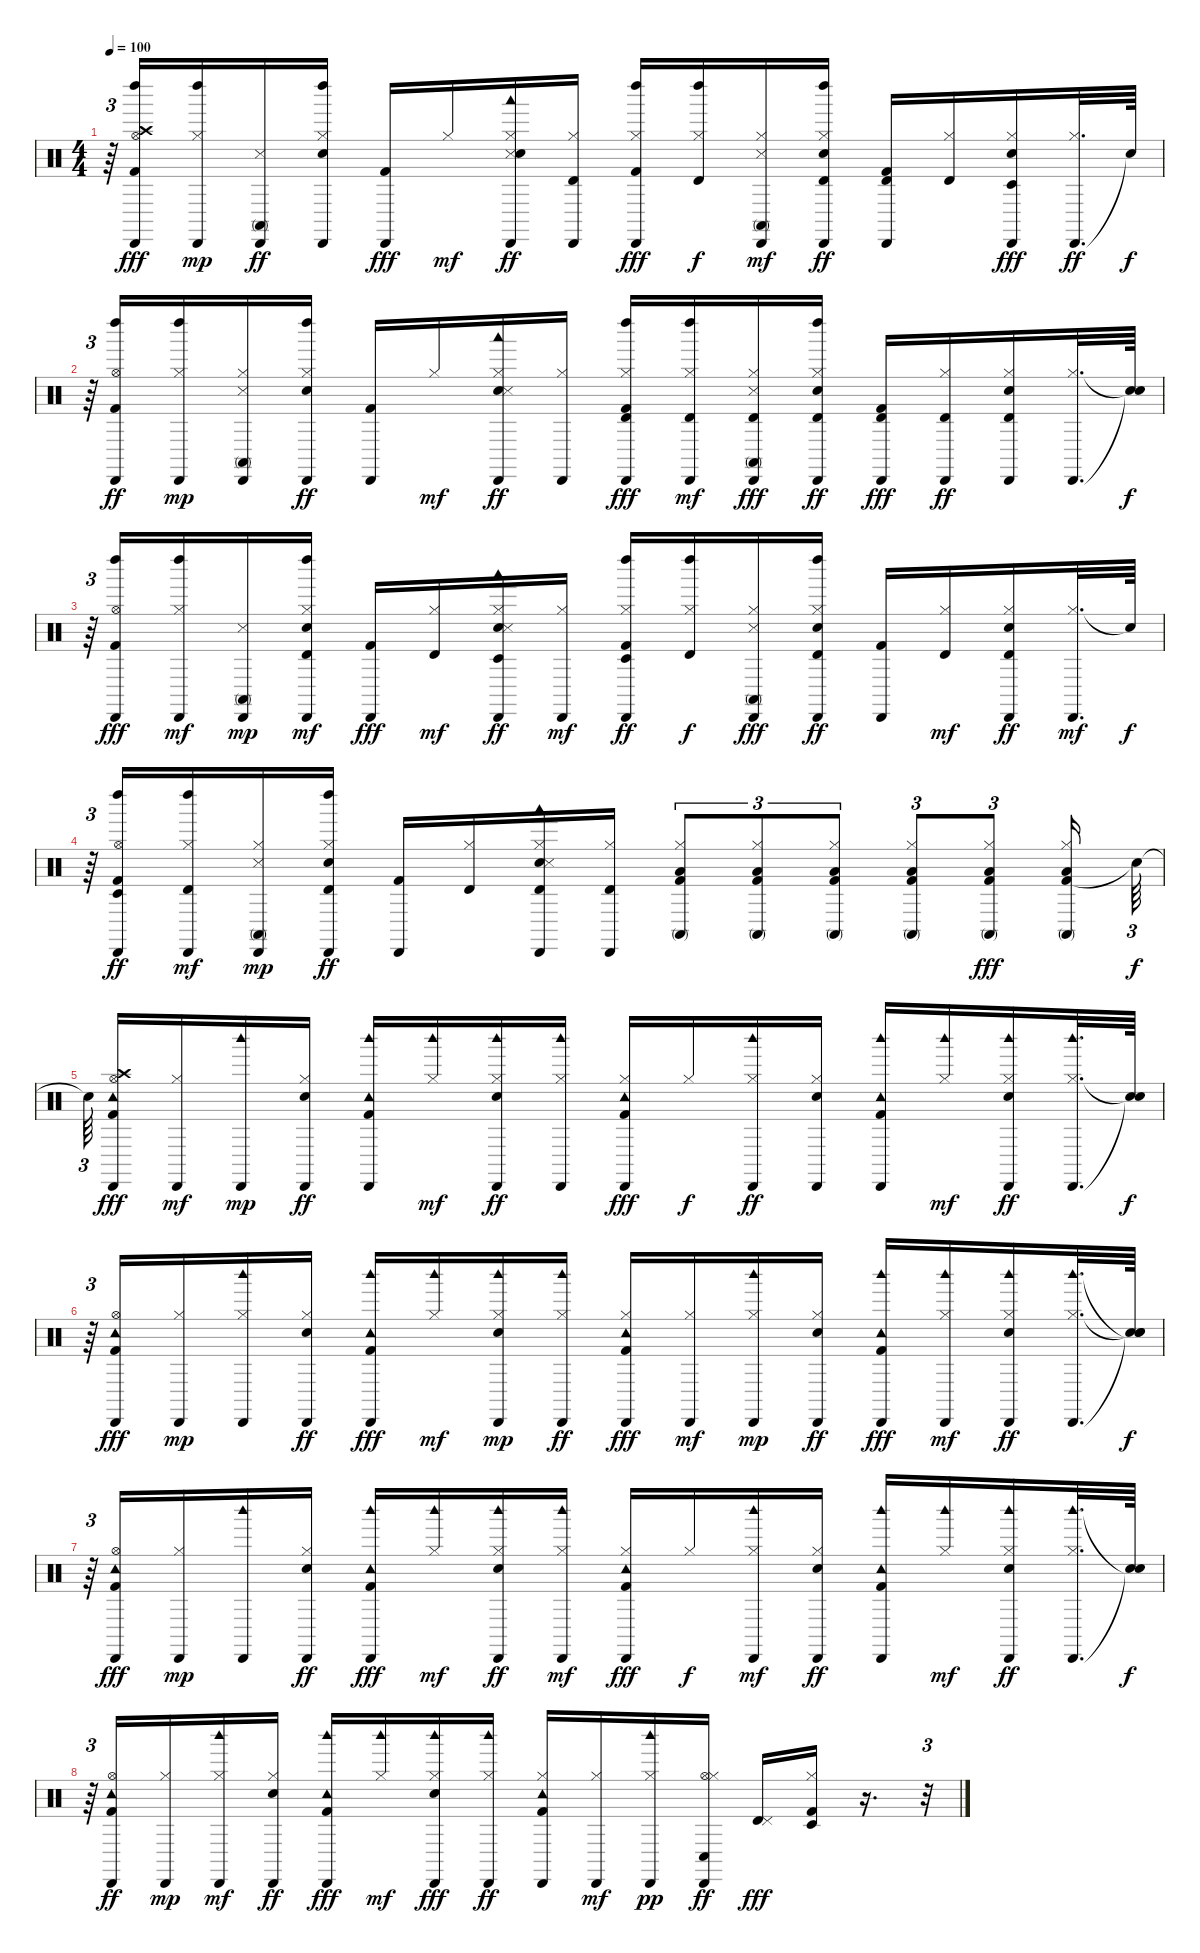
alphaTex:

\track "" {instrument percussion}
\staff {score}
\articulation defaults
\ts (4 4)
\tempo 100
\clef neutral
\ks c
r.64{tu (3 2) dy f} ("Kick (hit) 2" "Left Maraca (hit)" "Hi-Hat (open)" "Crash high (hit)" "Cabasa (hit)").16{dy fff} ("Cabasa (hit)" "Left Maraca (hit)" "Hi-Hat (closed)").16{dy mp} ("Conga high (mute)" "Cabasa (hit)" "Snare (side stick) 3").16{dy ff} ("Left Maraca (hit)" "Cabasa (hit)" "Electric Snare (hit)" "Hi-Hat (closed)").16 ("Cabasa (hit)" "Kick (hit) 2").16{dy fff} "Hi-Hat (closed)".16{dy mf} ("Hi-Hat (closed)" "Snare (side stick) 3" "Electric Snare (hit)" "Woodblock low (hit)" "Cabasa (hit)").16{dy ff} ("Cabasa (hit)" "Hi-Hat (closed)" "Timbale high (hit)").16 ("Left Maraca (hit)" "Hi-Hat (closed)" "Kick (hit) 2" "Cabasa (hit)").16{dy fff} ("Left Maraca (hit)" "Hi-Hat (closed)" "Timbale high (hit)").16{dy f} ("Conga high (mute)" "Hi-Hat (closed)" "Snare (side stick) 3" "Cabasa (hit)").16{dy mf} ("Timbale high (hit)" "Left Maraca (hit)" "Electric Snare (hit)" "Cabasa (hit)" "Hi-Hat (closed)").16{dy ff} ("Kick (hit) 2" "Cabasa (hit)" "Timbale high (hit)").16 ("Hi-Hat (closed)" "Timbale high (hit)").16 ("Timbale low (hit)" "Hi-Hat (closed)" "Cabasa (hit)" "Electric Snare (hit)").16{dy fff} ("Cabasa (hit)" "Hi-Hat (closed)").32{d dy ff} "Snare (hit)"{t}.64{dy f} |
r.64{tu (3 2)} ("Kick (hit) 2" "Left Maraca (hit)" "Cabasa (hit)" "Hi-Hat (open)").16{dy ff} ("Cabasa (hit)" "Hi-Hat (closed)" "Left Maraca (hit)").16{dy mp} ("Snare (side stick) 3" "Conga high (mute)" "Hi-Hat (closed)" "Cabasa (hit)").16 ("Hi-Hat (closed)" "Cabasa (hit)" "Left Maraca (hit)" "Electric Snare (hit)").16{dy ff} ("Cabasa (hit)" "Kick (hit) 2").16 "Hi-Hat (closed)".16{dy mf} ("Woodblock low (hit)" "Cabasa (hit)" "Electric Snare (hit)" "Hi-Hat (closed)" "Snare (side stick) 3").16{dy ff} ("Hi-Hat (closed)" "Cabasa (hit)").16 ("Left Maraca (hit)" "Cabasa (hit)" "Hi-Hat (closed)" "Timbale high (hit)" "Kick (hit) 2").16{dy fff} ("Cabasa (hit)" "Timbale high (hit)" "Left Maraca (hit)" "Hi-Hat (closed)").16{dy mf} ("Hi-Hat (closed)" "Timbale high (hit)" "Cabasa (hit)" "Conga high (mute)" "Snare (side stick) 3").16{dy fff} ("Electric Snare (hit)" "Hi-Hat (closed)" "Cabasa (hit)" "Timbale high (hit)" "Left Maraca (hit)").16{dy ff} ("Cabasa (hit)" "Kick (hit) 2" "Timbale high (hit)").16{dy fff} ("Hi-Hat (closed)" "Cabasa (hit)" "Timbale high (hit)").16{dy ff} ("Electric Snare (hit)" "Timbale high (hit)" "Cabasa (hit)" "Hi-Hat (closed)").16 ("Hi-Hat (closed)" "Cabasa (hit)").32{d} ("Snare (hit)"{t} "Snare (hit)"{t}).64{dy f} |
r.64{tu (3 2)} ("Kick (hit) 2" "Hi-Hat (open)" "Cabasa (hit)" "Left Maraca (hit)").16{dy fff} ("Hi-Hat (closed)" "Left Maraca (hit)" "Cabasa (hit)").16{dy mf} ("Conga high (mute)" "Snare (side stick) 3" "Cabasa (hit)").16{dy mp} ("Timbale high (hit)" "Electric Snare (hit)" "Hi-Hat (closed)" "Cabasa (hit)" "Left Maraca (hit)").16{dy mf} ("Cabasa (hit)" "Kick (hit) 2").16{dy fff} ("Timbale high (hit)" "Hi-Hat (closed)").16{dy mf} ("Electric Snare (hit)" "Hi-Hat (closed)" "Timbale low (hit)" "Snare (side stick) 3" "Woodblock low (hit)" "Cabasa (hit)").16{dy ff} ("Cabasa (hit)" "Hi-Hat (closed)").16{dy mf} ("Kick (hit) 2" "Timbale low (hit)" "Left Maraca (hit)" "Cabasa (hit)" "Hi-Hat (closed)").16{dy ff} ("Hi-Hat (closed)" "Left Maraca (hit)" "Timbale high (hit)").16{dy f} ("Hi-Hat (closed)" "Snare (side stick) 3" "Cabasa (hit)" "Conga high (mute)").16{dy fff} ("Timbale high (hit)" "Electric Snare (hit)" "Hi-Hat (closed)" "Left Maraca (hit)" "Cabasa (hit)").16{dy ff} ("Kick (hit) 2" "Cabasa (hit)").16 ("Timbale high (hit)" "Hi-Hat (closed)").16{dy mf} ("Cabasa (hit)" "Timbale high (hit)" "Electric Snare (hit)" "Hi-Hat (closed)").16{dy ff} ("Hi-Hat (closed)" "Cabasa (hit)").32{d dy mf} "Snare (hit)"{t}.64{dy f} |
r.64{tu (3 2)} ("Kick (hit) 2" "Hi-Hat (open)" "Timbale low (hit)" "Left Maraca (hit)" "Cabasa (hit)").16{dy ff} ("Hi-Hat (closed)" "Cabasa (hit)" "Timbale high (hit)" "Left Maraca (hit)").16{dy mf} ("Hi-Hat (closed)" "Snare (side stick) 3" "Conga high (mute)" "Cabasa (hit)").16{dy mp} ("Hi-Hat (closed)" "Electric Snare (hit)" "Left Maraca (hit)" "Cabasa (hit)" "Timbale high (hit)").16{dy ff} ("Cabasa (hit)" "Kick (hit) 2").16 ("Hi-Hat (closed)" "Timbale high (hit)").16 ("Electric Snare (hit)" "Cabasa (hit)" "Woodblock low (hit)" "Timbale high (hit)" "Hi-Hat (closed)" "Snare (side stick) 3").16 ("Timbale high (hit)" "Cabasa (hit)" "Hi-Hat (closed)").16 ("Low Tom (hit)" "Hi-Hat (closed)" "Conga high (mute)" "Kick (hit) 2").8{tu (3 2)} ("Conga high (mute)" "Low Tom (hit)" "Hi-Hat (closed)" "Kick (hit) 2").8{tu (3 2)} ("Low Tom (hit)" "Conga high (mute)" "Hi-Hat (closed)" "Kick (hit) 2").8{tu (3 2)} ("Conga high (mute)" "Kick (hit) 2" "Low Tom (hit)" "Hi-Hat (closed)").8{tu (3 2)} ("Kick (hit) 2" "Hi-Hat (closed)" "Conga high (mute)" "Low Tom (hit)").8{tu (3 2) dy fff} ("Kick (hit) 2" "Conga high (mute)" "Low Tom (hit)" "Hi-Hat (closed)").16 "Snare (hit)"{t}.64{tu (3 2) dy f} |
"Snare (hit)"{t}.64{tu (3 2) beam splitsecondary} ("Kick (hit) 2" "Cabasa (hit)" "Tambourine (hit)" "Hi-Hat (open)" "Crash high (hit)").16{dy fff} ("Hi-Hat (closed)" "Cabasa (hit)").16{dy mf} ("Cabasa (hit)" "Woodblock high (hit)").16{dy mp} ("Cabasa (hit)" "Electric Snare (hit)" "Hi-Hat (closed)").16{dy ff} ("Tambourine (hit)" "Cabasa (hit)" "Kick (hit) 2" "Woodblock high (hit)").16 ("Woodblock high (hit)" "Hi-Hat (closed)").16{dy mf} ("Hi-Hat (closed)" "Cabasa (hit)" "Woodblock high (hit)" "Electric Snare (hit)").16{dy ff} ("Hi-Hat (closed)" "Cabasa (hit)" "Woodblock high (hit)").16 ("Kick (hit) 2" "Cabasa (hit)" "Hi-Hat (closed)" "Tambourine (hit)").16{dy fff} "Hi-Hat (closed)".16{dy f} ("Hi-Hat (closed)" "Cabasa (hit)" "Woodblock high (hit)").16{dy ff} ("Cabasa (hit)" "Hi-Hat (closed)" "Electric Snare (hit)").16 ("Tambourine (hit)" "Woodblock high (hit)" "Cabasa (hit)" "Kick (hit) 2").16 ("Hi-Hat (closed)" "Woodblock high (hit)").16{dy mf} ("Electric Snare (hit)" "Cabasa (hit)" "Hi-Hat (closed)" "Woodblock high (hit)").16{dy ff} ("Cabasa (hit)" "Hi-Hat (closed)" "Woodblock high (hit)").32{d} ("Snare (hit)"{t} "Snare (hit)"{t}).64{dy f} |
r.64{tu (3 2)} ("Tambourine (hit)" "Hi-Hat (open)" "Cabasa (hit)" "Kick (hit) 2").16{dy fff} ("Cabasa (hit)" "Hi-Hat (closed)").16{dy mp} ("Hi-Hat (closed)" "Woodblock high (hit)" "Cabasa (hit)").16 ("Electric Snare (hit)" "Cabasa (hit)" "Hi-Hat (closed)").16{dy ff} ("Woodblock high (hit)" "Cabasa (hit)" "Kick (hit) 2" "Tambourine (hit)").16{dy fff} ("Woodblock high (hit)" "Hi-Hat (closed)").16{dy mf} ("Woodblock high (hit)" "Electric Snare (hit)" "Hi-Hat (closed)" "Cabasa (hit)").16{dy mp} ("Cabasa (hit)" "Hi-Hat (closed)" "Woodblock high (hit)").16{dy ff} ("Hi-Hat (closed)" "Tambourine (hit)" "Kick (hit) 2" "Cabasa (hit)").16{dy fff} ("Hi-Hat (closed)" "Cabasa (hit)").16{dy mf} ("Woodblock high (hit)" "Hi-Hat (closed)" "Cabasa (hit)").16{dy mp} ("Cabasa (hit)" "Electric Snare (hit)" "Hi-Hat (closed)").16{dy ff} ("Tambourine (hit)" "Woodblock high (hit)" "Kick (hit) 2" "Cabasa (hit)").16{dy fff} ("Hi-Hat (closed)" "Woodblock high (hit)" "Cabasa (hit)").16{dy mf} ("Woodblock high (hit)" "Electric Snare (hit)" "Hi-Hat (closed)" "Cabasa (hit)").16{dy ff} ("Hi-Hat (closed)" "Cabasa (hit)" "Woodblock high (hit)").32{d} ("Snare (hit)"{t} "Snare (hit)"{t} "Snare (hit)"{t}).64{dy f} |
r.64{tu (3 2)} ("Hi-Hat (open)" "Kick (hit) 2" "Cabasa (hit)" "Tambourine (hit)").16{dy fff} ("Cabasa (hit)" "Hi-Hat (closed)").16{dy mp} ("Cabasa (hit)" "Woodblock high (hit)").16 ("Electric Snare (hit)" "Hi-Hat (closed)" "Cabasa (hit)").16{dy ff} ("Cabasa (hit)" "Woodblock high (hit)" "Kick (hit) 2" "Tambourine (hit)").16{dy fff} ("Woodblock high (hit)" "Hi-Hat (closed)").16{dy mf} ("Woodblock high (hit)" "Cabasa (hit)" "Hi-Hat (closed)" "Electric Snare (hit)").16{dy ff} ("Hi-Hat (closed)" "Woodblock high (hit)" "Cabasa (hit)").16{dy mf} ("Hi-Hat (closed)" "Kick (hit) 2" "Cabasa (hit)" "Tambourine (hit)").16{dy fff} "Hi-Hat (closed)".16{dy f} ("Hi-Hat (closed)" "Woodblock high (hit)" "Cabasa (hit)").16{dy mf} ("Cabasa (hit)" "Electric Snare (hit)" "Hi-Hat (closed)").16{dy ff} ("Woodblock high (hit)" "Cabasa (hit)" "Kick (hit) 2" "Tambourine (hit)").16 ("Hi-Hat (closed)" "Woodblock high (hit)").16{dy mf} ("Cabasa (hit)" "Woodblock high (hit)" "Electric Snare (hit)" "Hi-Hat (closed)").16{dy ff} ("Cabasa (hit)" "Woodblock high (hit)" "Hi-Hat (closed)").32{d} ("Snare (hit)"{t} "Snare (hit)"{t}).64{dy f} |
r.64{tu (3 2)} ("Kick (hit) 2" "Tambourine (hit)" "Hi-Hat (open)" "Cabasa (hit)").16{dy ff} ("Cabasa (hit)" "Hi-Hat (closed)").16{dy mp} ("Woodblock high (hit)" "Cabasa (hit)" "Hi-Hat (closed)").16{dy mf} ("Hi-Hat (closed)" "Electric Snare (hit)" "Cabasa (hit)").16{dy ff} ("Woodblock high (hit)" "Kick (hit) 2" "Cabasa (hit)" "Tambourine (hit)").16{dy fff} ("Hi-Hat (closed)" "Woodblock high (hit)").16{dy mf} ("Cabasa (hit)" "Woodblock high (hit)" "Hi-Hat (closed)" "Electric Snare (hit)").16{dy fff} ("Hi-Hat (closed)" "Cabasa (hit)" "Woodblock high (hit)").16{dy ff} ("Hi-Hat (closed)" "Tambourine (hit)" "Kick (hit) 2" "Cabasa (hit)").16 ("Cabasa (hit)" "Hi-Hat (closed)").16{dy mf} ("Woodblock high (hit)" "Cabasa (hit)" "Hi-Hat (closed)").16{dy pp} ("Hi-Hat (open)" "Hi-Hat (closed)" "Cabasa (hit)" "Conga low (hit)").16{dy ff} ("Timbale high (hit)" "Pedal Hi-Hat (hit)").16{dy fff} ("Timbale low (hit)" "Kick (hit) 2" "Hi-Hat (closed)").16 r.16{d} r.32{tu (3 2)}
